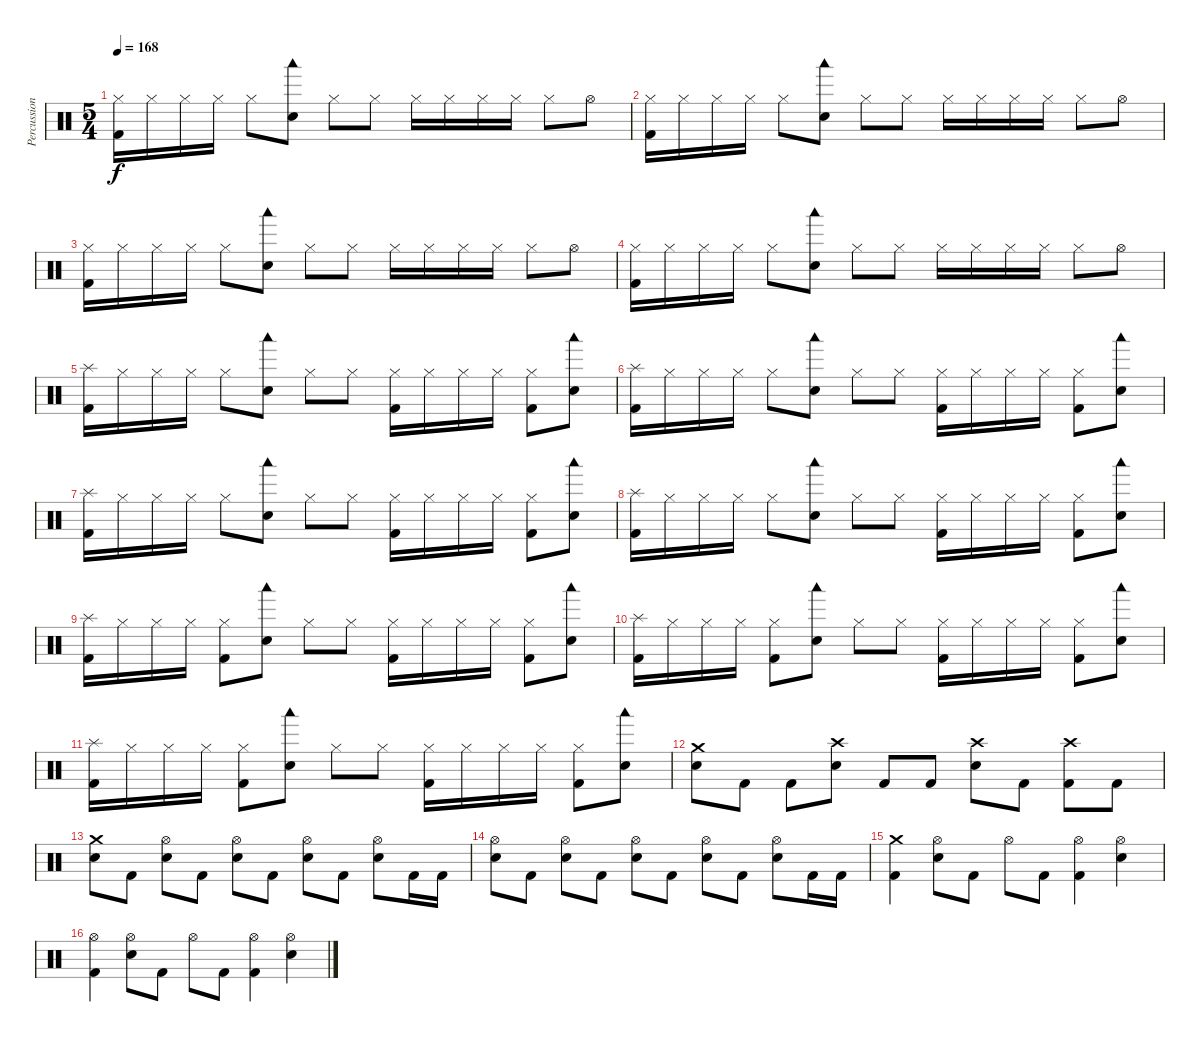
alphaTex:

\track ("Percussion" "Percussion") {instrument percussion}
\staff {score}
\articulation defaults
\ts (5 4)
\tempo 168
\clef neutral
\ks c
("Hi-Hat (closed)" "Kick (hit) 2").16{dy f} "Hi-Hat (closed)".16 "Hi-Hat (closed)".16 "Hi-Hat (closed)".16 "Hi-Hat (closed)".8 ("Woodblock low (hit)" "Electric Snare (hit)").8 "Hi-Hat (closed)".8 "Hi-Hat (closed)".8 "Hi-Hat (closed)".16 "Hi-Hat (closed)".16 "Hi-Hat (closed)".16 "Hi-Hat (closed)".16 "Hi-Hat (closed)".8 "Hi-Hat (open)".8 |
("Hi-Hat (closed)" "Kick (hit) 2").16 "Hi-Hat (closed)".16 "Hi-Hat (closed)".16 "Hi-Hat (closed)".16 "Hi-Hat (closed)".8 ("Woodblock low (hit)" "Electric Snare (hit)").8 "Hi-Hat (closed)".8 "Hi-Hat (closed)".8 "Hi-Hat (closed)".16 "Hi-Hat (closed)".16 "Hi-Hat (closed)".16 "Hi-Hat (closed)".16 "Hi-Hat (closed)".8 "Hi-Hat (open)".8 |
("Hi-Hat (closed)" "Kick (hit) 2").16 "Hi-Hat (closed)".16 "Hi-Hat (closed)".16 "Hi-Hat (closed)".16 "Hi-Hat (closed)".8 ("Woodblock low (hit)" "Electric Snare (hit)").8 "Hi-Hat (closed)".8 "Hi-Hat (closed)".8 "Hi-Hat (closed)".16 "Hi-Hat (closed)".16 "Hi-Hat (closed)".16 "Hi-Hat (closed)".16 "Hi-Hat (closed)".8 "Hi-Hat (open)".8 |
("Hi-Hat (closed)" "Kick (hit) 2").16 "Hi-Hat (closed)".16 "Hi-Hat (closed)".16 "Hi-Hat (closed)".16 "Hi-Hat (closed)".8 ("Woodblock low (hit)" "Electric Snare (hit)").8 "Hi-Hat (closed)".8 "Hi-Hat (closed)".8 "Hi-Hat (closed)".16 "Hi-Hat (closed)".16 "Hi-Hat (closed)".16 "Hi-Hat (closed)".16 "Hi-Hat (closed)".8 "Hi-Hat (open)".8 |
("Splash (hit)" "Kick (hit) 2").16 "Hi-Hat (closed)".16 "Hi-Hat (closed)".16 "Hi-Hat (closed)".16 "Hi-Hat (closed)".8 ("Woodblock low (hit)" "Electric Snare (hit)").8 "Hi-Hat (closed)".8 "Hi-Hat (closed)".8 ("Hi-Hat (closed)" "Kick (hit) 2").16 "Hi-Hat (closed)".16 "Hi-Hat (closed)".16 "Hi-Hat (closed)".16 ("Hi-Hat (closed)" "Kick (hit) 2").8 ("Woodblock low (hit)" "Electric Snare (hit)").8 |
("Splash (hit)" "Kick (hit) 2").16 "Hi-Hat (closed)".16 "Hi-Hat (closed)".16 "Hi-Hat (closed)".16 "Hi-Hat (closed)".8 ("Woodblock low (hit)" "Electric Snare (hit)").8 "Hi-Hat (closed)".8 "Hi-Hat (closed)".8 ("Hi-Hat (closed)" "Kick (hit) 2").16 "Hi-Hat (closed)".16 "Hi-Hat (closed)".16 "Hi-Hat (closed)".16 ("Hi-Hat (closed)" "Kick (hit) 2").8 ("Woodblock low (hit)" "Electric Snare (hit)").8 |
("Splash (hit)" "Kick (hit) 2").16 "Hi-Hat (closed)".16 "Hi-Hat (closed)".16 "Hi-Hat (closed)".16 "Hi-Hat (closed)".8 ("Woodblock low (hit)" "Electric Snare (hit)").8 "Hi-Hat (closed)".8 "Hi-Hat (closed)".8 ("Hi-Hat (closed)" "Kick (hit) 2").16 "Hi-Hat (closed)".16 "Hi-Hat (closed)".16 "Hi-Hat (closed)".16 ("Hi-Hat (closed)" "Kick (hit) 2").8 ("Woodblock low (hit)" "Electric Snare (hit)").8 |
("Splash (hit)" "Kick (hit) 2").16 "Hi-Hat (closed)".16 "Hi-Hat (closed)".16 "Hi-Hat (closed)".16 "Hi-Hat (closed)".8 ("Woodblock low (hit)" "Electric Snare (hit)").8 "Hi-Hat (closed)".8 "Hi-Hat (closed)".8 ("Hi-Hat (closed)" "Kick (hit) 2").16 "Hi-Hat (closed)".16 "Hi-Hat (closed)".16 "Hi-Hat (closed)".16 ("Hi-Hat (closed)" "Kick (hit) 2").8 ("Woodblock low (hit)" "Electric Snare (hit)").8 |
("Splash (hit)" "Kick (hit) 2").16 "Hi-Hat (closed)".16 "Hi-Hat (closed)".16 "Hi-Hat (closed)".16 ("Hi-Hat (closed)" "Kick (hit) 2").8 ("Woodblock low (hit)" "Electric Snare (hit)").8 "Hi-Hat (closed)".8 "Hi-Hat (closed)".8 ("Hi-Hat (closed)" "Kick (hit) 2").16 "Hi-Hat (closed)".16 "Hi-Hat (closed)".16 "Hi-Hat (closed)".16 ("Hi-Hat (closed)" "Kick (hit) 2").8 ("Woodblock low (hit)" "Electric Snare (hit)").8 |
("Splash (hit)" "Kick (hit) 2").16 "Hi-Hat (closed)".16 "Hi-Hat (closed)".16 "Hi-Hat (closed)".16 ("Hi-Hat (closed)" "Kick (hit) 2").8 ("Woodblock low (hit)" "Electric Snare (hit)").8 "Hi-Hat (closed)".8 "Hi-Hat (closed)".8 ("Hi-Hat (closed)" "Kick (hit) 2").16 "Hi-Hat (closed)".16 "Hi-Hat (closed)".16 "Hi-Hat (closed)".16 ("Hi-Hat (closed)" "Kick (hit) 2").8 ("Woodblock low (hit)" "Electric Snare (hit)").8 |
("Splash (hit)" "Kick (hit) 2").16 "Hi-Hat (closed)".16 "Hi-Hat (closed)".16 "Hi-Hat (closed)".16 ("Hi-Hat (closed)" "Kick (hit) 2").8 ("Woodblock low (hit)" "Electric Snare (hit)").8 "Hi-Hat (closed)".8 "Hi-Hat (closed)".8 ("Hi-Hat (closed)" "Kick (hit) 2").16 "Hi-Hat (closed)".16 "Hi-Hat (closed)".16 "Hi-Hat (closed)".16 ("Hi-Hat (closed)" "Kick (hit) 2").8 ("Woodblock low (hit)" "Electric Snare (hit)").8 |
("Crash medium (hit)" "Electric Snare (hit)").8 "Kick (hit) 2".8 "Kick (hit) 2".8 ("Crash high (hit)" "Electric Snare (hit)").8 "Kick (hit) 2".8 "Kick (hit) 2".8 ("Crash high (hit)" "Electric Snare (hit)").8 "Kick (hit) 2".8 ("Crash high (hit)" "Kick (hit) 2").8 "Kick (hit) 2".8 |
("Crash medium (hit)" "Electric Snare (hit)").8 "Kick (hit) 2".8 ("Hi-Hat (open)" "Electric Snare (hit)").8 "Kick (hit) 2".8 ("Hi-Hat (open)" "Electric Snare (hit)").8 "Kick (hit) 2".8 ("Hi-Hat (open)" "Electric Snare (hit)").8 "Kick (hit) 2".8 ("Hi-Hat (open)" "Electric Snare (hit)").8 "Kick (hit) 2".16 "Kick (hit) 2".16 |
("Hi-Hat (open)" "Electric Snare (hit)").8 "Kick (hit) 2".8 ("Hi-Hat (open)" "Electric Snare (hit)").8 "Kick (hit) 2".8 ("Hi-Hat (open)" "Electric Snare (hit)").8 "Kick (hit) 2".8 ("Hi-Hat (open)" "Electric Snare (hit)").8 "Kick (hit) 2".8 ("Hi-Hat (open)" "Electric Snare (hit)").8 "Kick (hit) 2".16 "Kick (hit) 2".16 |
("Crash medium (hit)" "Kick (hit) 2").4 ("Hi-Hat (open)" "Electric Snare (hit)").8 "Kick (hit) 2".8 "Hi-Hat (open)".8 "Kick (hit) 2".8 ("Hi-Hat (open)" "Kick (hit) 2").4 ("Hi-Hat (open)" "Electric Snare (hit)").4 |
("Hi-Hat (open)" "Kick (hit) 2").4 ("Hi-Hat (open)" "Electric Snare (hit)").8 "Kick (hit) 2".8 "Hi-Hat (open)".8 "Kick (hit) 2".8 ("Hi-Hat (open)" "Kick (hit) 2").4 ("Hi-Hat (open)" "Electric Snare (hit)").4
